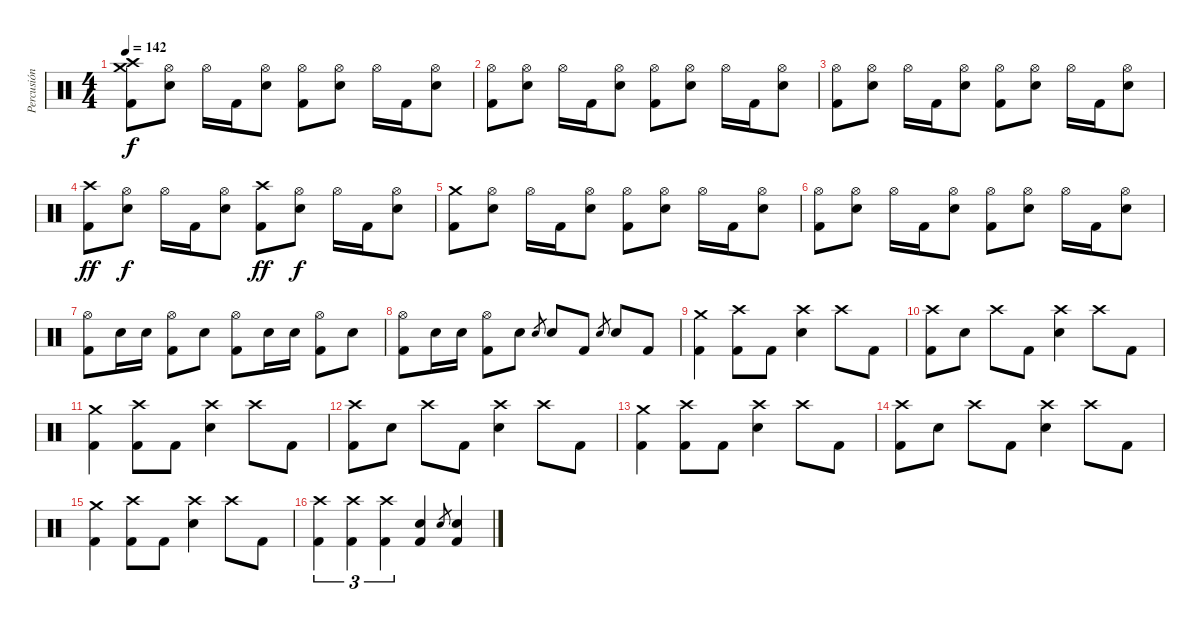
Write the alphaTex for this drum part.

\track ("Percusión" "Percusión") {instrument percussion}
\staff {score}
\articulation defaults
\ts (4 4)
\tempo 142
\clef neutral
\ks c
("Crash high (hit)" "Crash medium (hit)" "Kick (hit) 2").8{dy f} ("Hi-Hat (open)" "Electric Snare (hit)").8 "Hi-Hat (open)".16 "Kick (hit) 2".16 ("Hi-Hat (open)" "Electric Snare (hit)").8 ("Hi-Hat (open)" "Kick (hit) 2").8 ("Hi-Hat (open)" "Electric Snare (hit)").8 "Hi-Hat (open)".16 "Kick (hit) 2".16 ("Hi-Hat (open)" "Electric Snare (hit)").8 |
("Hi-Hat (open)" "Kick (hit) 2").8 ("Hi-Hat (open)" "Electric Snare (hit)").8 "Hi-Hat (open)".16 "Kick (hit) 2".16 ("Hi-Hat (open)" "Electric Snare (hit)").8 ("Hi-Hat (open)" "Kick (hit) 2").8 ("Hi-Hat (open)" "Electric Snare (hit)").8 "Hi-Hat (open)".16 "Kick (hit) 2".16 ("Hi-Hat (open)" "Electric Snare (hit)").8 |
("Hi-Hat (open)" "Kick (hit) 2").8 ("Hi-Hat (open)" "Electric Snare (hit)").8 "Hi-Hat (open)".16 "Kick (hit) 2".16 ("Hi-Hat (open)" "Electric Snare (hit)").8 ("Hi-Hat (open)" "Kick (hit) 2").8 ("Hi-Hat (open)" "Electric Snare (hit)").8 "Hi-Hat (open)".16 "Kick (hit) 2".16 ("Hi-Hat (open)" "Electric Snare (hit)").8 |
("Crash high (hit)" "Kick (hit) 2").8{dy ff} ("Hi-Hat (open)" "Electric Snare (hit)").8{dy f} "Hi-Hat (open)".16 "Kick (hit) 2".16 ("Hi-Hat (open)" "Electric Snare (hit)").8 ("Crash high (hit)" "Kick (hit) 2").8{dy ff} ("Hi-Hat (open)" "Electric Snare (hit)").8{dy f} "Hi-Hat (open)".16 "Kick (hit) 2".16 ("Hi-Hat (open)" "Electric Snare (hit)").8 |
("Crash medium (hit)" "Kick (hit) 2").8 ("Hi-Hat (open)" "Electric Snare (hit)").8 "Hi-Hat (open)".16 "Kick (hit) 2".16 ("Hi-Hat (open)" "Electric Snare (hit)").8 ("Hi-Hat (open)" "Kick (hit) 2").8 ("Hi-Hat (open)" "Electric Snare (hit)").8 "Hi-Hat (open)".16 "Kick (hit) 2".16 ("Hi-Hat (open)" "Electric Snare (hit)").8 |
("Hi-Hat (open)" "Kick (hit) 2").8 ("Hi-Hat (open)" "Electric Snare (hit)").8 "Hi-Hat (open)".16 "Kick (hit) 2".16 ("Hi-Hat (open)" "Electric Snare (hit)").8 ("Hi-Hat (open)" "Kick (hit) 2").8 ("Hi-Hat (open)" "Electric Snare (hit)").8 "Hi-Hat (open)".16 "Kick (hit) 2".16 ("Hi-Hat (open)" "Electric Snare (hit)").8 |
("Hi-Hat (open)" "Kick (hit) 2").8 "Electric Snare (hit)".16 "Electric Snare (hit)".16 ("Hi-Hat (open)" "Kick (hit) 2").8 "Electric Snare (hit)".8 ("Hi-Hat (open)" "Kick (hit) 2").8 "Electric Snare (hit)".16 "Electric Snare (hit)".16 ("Hi-Hat (open)" "Kick (hit) 2").8 "Electric Snare (hit)".8 |
("Hi-Hat (open)" "Kick (hit) 2").8 "Electric Snare (hit)".16 "Electric Snare (hit)".16 ("Hi-Hat (open)" "Kick (hit) 2").8 "Electric Snare (hit)".8 "Electric Snare (hit)".8{gr} "Electric Snare (hit)".8 "Kick (hit) 2".8 "Electric Snare (hit)".8{gr} "Electric Snare (hit)".8 "Kick (hit) 2".8 |
("Crash medium (hit)" "Kick (hit) 2").4 ("Crash high (hit)" "Kick (hit) 2").8 "Kick (hit) 2".8 ("Crash high (hit)" "Electric Snare (hit)").4 "Crash high (hit)".8 "Kick (hit) 2".8 |
("Crash high (hit)" "Kick (hit) 2").8 "Electric Snare (hit)".8 "Crash high (hit)".8 "Kick (hit) 2".8 ("Crash high (hit)" "Electric Snare (hit)").4 "Crash high (hit)".8 "Kick (hit) 2".8 |
("Crash medium (hit)" "Kick (hit) 2").4 ("Crash high (hit)" "Kick (hit) 2").8 "Kick (hit) 2".8 ("Crash high (hit)" "Electric Snare (hit)").4 "Crash high (hit)".8 "Kick (hit) 2".8 |
("Crash high (hit)" "Kick (hit) 2").8 "Electric Snare (hit)".8 "Crash high (hit)".8 "Kick (hit) 2".8 ("Crash high (hit)" "Electric Snare (hit)").4 "Crash high (hit)".8 "Kick (hit) 2".8 |
("Crash medium (hit)" "Kick (hit) 2").4 ("Crash high (hit)" "Kick (hit) 2").8 "Kick (hit) 2".8 ("Crash high (hit)" "Electric Snare (hit)").4 "Crash high (hit)".8 "Kick (hit) 2".8 |
("Crash high (hit)" "Kick (hit) 2").8 "Electric Snare (hit)".8 "Crash high (hit)".8 "Kick (hit) 2".8 ("Crash high (hit)" "Electric Snare (hit)").4 "Crash high (hit)".8 "Kick (hit) 2".8 |
("Crash medium (hit)" "Kick (hit) 2").4 ("Crash high (hit)" "Kick (hit) 2").8 "Kick (hit) 2".8 ("Crash high (hit)" "Electric Snare (hit)").4 "Crash high (hit)".8 "Kick (hit) 2".8 |
("Crash high (hit)" "Kick (hit) 2").4{tu (3 2)} ("Crash high (hit)" "Kick (hit) 2").4{tu (3 2)} ("Crash high (hit)" "Kick (hit) 2").4{tu (3 2)} ("Electric Snare (hit)" "Kick (hit) 2").4 "Electric Snare (hit)".8{gr} ("Electric Snare (hit)" "Kick (hit) 2").4
